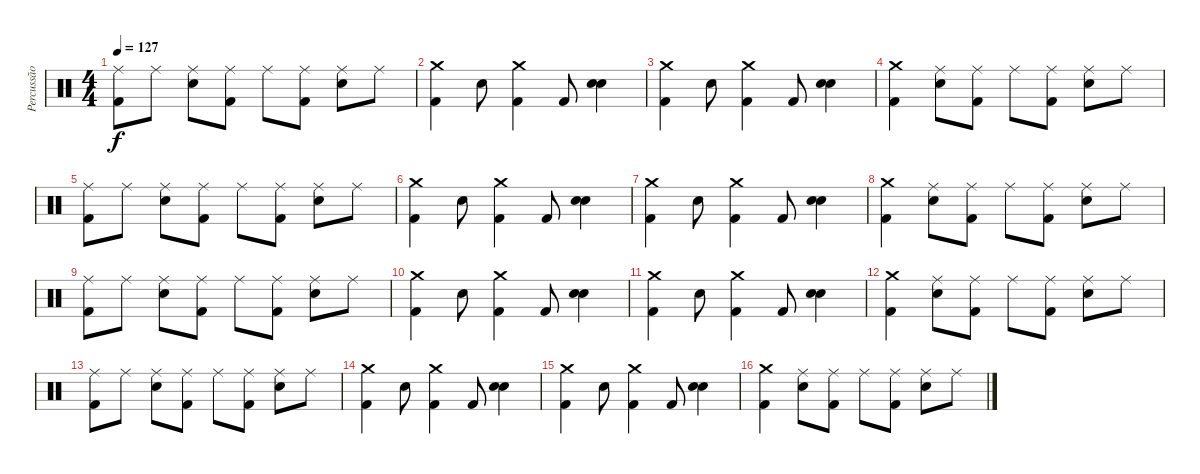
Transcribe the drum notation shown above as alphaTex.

\track ("Percussão" "Percussão") {instrument percussion}
\staff {score}
\articulation defaults
\ts (4 4)
\tempo 127
\clef neutral
\ks c
("Ride (middle)" "Kick (hit) 2").8{dy f} "Ride (middle)".8 ("Ride (middle)" "Electric Snare (hit)").8 ("Ride (middle)" "Kick (hit) 2").8 "Ride (middle)".8 ("Ride (middle)" "Kick (hit) 2").8 ("Ride (middle)" "Electric Snare (hit)").8 "Ride (middle)".8 |
("Crash medium (hit)" "Kick (hit) 2").4 "Electric Snare (hit)".8 ("Crash medium (hit)" "Kick (hit) 2").4 "Kick (hit) 2".8 ("Electric Snare (hit)" "Electric Snare (hit)").4 |
("Crash medium (hit)" "Kick (hit) 2").4 "Electric Snare (hit)".8 ("Crash medium (hit)" "Kick (hit) 2").4 "Kick (hit) 2".8 ("Electric Snare (hit)" "Electric Snare (hit)").4 |
("Crash medium (hit)" "Kick (hit) 2").4 ("Ride (middle)" "Electric Snare (hit)").8 ("Ride (middle)" "Kick (hit) 2").8 "Ride (middle)".8 ("Ride (middle)" "Kick (hit) 2").8 ("Ride (middle)" "Electric Snare (hit)").8 "Ride (middle)".8 |
("Ride (middle)" "Kick (hit) 2").8 "Ride (middle)".8 ("Ride (middle)" "Electric Snare (hit)").8 ("Ride (middle)" "Kick (hit) 2").8 "Ride (middle)".8 ("Ride (middle)" "Kick (hit) 2").8 ("Ride (middle)" "Electric Snare (hit)").8 "Ride (middle)".8 |
("Crash medium (hit)" "Kick (hit) 2").4 "Electric Snare (hit)".8 ("Crash medium (hit)" "Kick (hit) 2").4 "Kick (hit) 2".8 ("Electric Snare (hit)" "Electric Snare (hit)").4 |
("Crash medium (hit)" "Kick (hit) 2").4 "Electric Snare (hit)".8 ("Crash medium (hit)" "Kick (hit) 2").4 "Kick (hit) 2".8 ("Electric Snare (hit)" "Electric Snare (hit)").4 |
("Crash medium (hit)" "Kick (hit) 2").4 ("Ride (middle)" "Electric Snare (hit)").8 ("Ride (middle)" "Kick (hit) 2").8 "Ride (middle)".8 ("Ride (middle)" "Kick (hit) 2").8 ("Ride (middle)" "Electric Snare (hit)").8 "Ride (middle)".8 |
("Ride (middle)" "Kick (hit) 2").8 "Ride (middle)".8 ("Ride (middle)" "Electric Snare (hit)").8 ("Ride (middle)" "Kick (hit) 2").8 "Ride (middle)".8 ("Ride (middle)" "Kick (hit) 2").8 ("Ride (middle)" "Electric Snare (hit)").8 "Ride (middle)".8 |
("Crash medium (hit)" "Kick (hit) 2").4 "Electric Snare (hit)".8 ("Crash medium (hit)" "Kick (hit) 2").4 "Kick (hit) 2".8 ("Electric Snare (hit)" "Electric Snare (hit)").4 |
("Crash medium (hit)" "Kick (hit) 2").4 "Electric Snare (hit)".8 ("Crash medium (hit)" "Kick (hit) 2").4 "Kick (hit) 2".8 ("Electric Snare (hit)" "Electric Snare (hit)").4 |
("Crash medium (hit)" "Kick (hit) 2").4 ("Ride (middle)" "Electric Snare (hit)").8 ("Ride (middle)" "Kick (hit) 2").8 "Ride (middle)".8 ("Ride (middle)" "Kick (hit) 2").8 ("Ride (middle)" "Electric Snare (hit)").8 "Ride (middle)".8 |
("Ride (middle)" "Kick (hit) 2").8 "Ride (middle)".8 ("Ride (middle)" "Electric Snare (hit)").8 ("Ride (middle)" "Kick (hit) 2").8 "Ride (middle)".8 ("Ride (middle)" "Kick (hit) 2").8 ("Ride (middle)" "Electric Snare (hit)").8 "Ride (middle)".8 |
("Crash medium (hit)" "Kick (hit) 2").4 "Electric Snare (hit)".8 ("Crash medium (hit)" "Kick (hit) 2").4 "Kick (hit) 2".8 ("Electric Snare (hit)" "Electric Snare (hit)").4 |
("Crash medium (hit)" "Kick (hit) 2").4 "Electric Snare (hit)".8 ("Crash medium (hit)" "Kick (hit) 2").4 "Kick (hit) 2".8 ("Electric Snare (hit)" "Electric Snare (hit)").4 |
("Crash medium (hit)" "Kick (hit) 2").4 ("Ride (middle)" "Electric Snare (hit)").8 ("Ride (middle)" "Kick (hit) 2").8 "Ride (middle)".8 ("Ride (middle)" "Kick (hit) 2").8 ("Ride (middle)" "Electric Snare (hit)").8 "Ride (middle)".8
